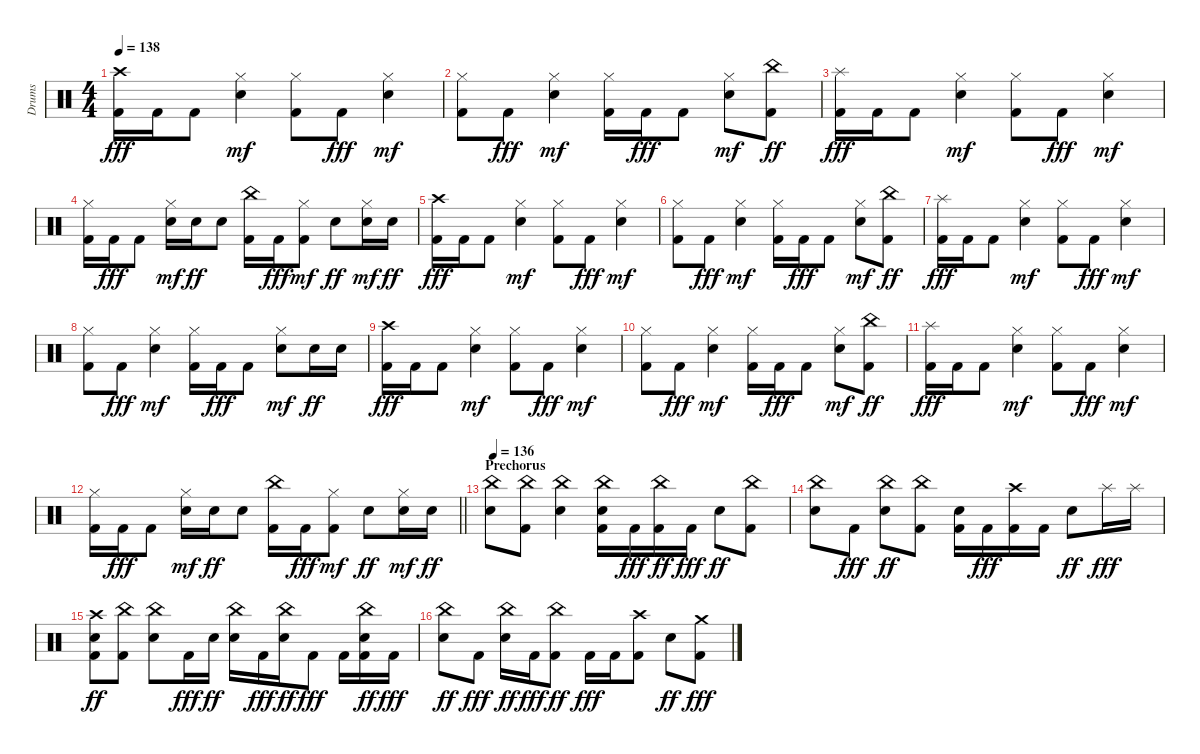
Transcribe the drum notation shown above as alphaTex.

\track ("Drums" "Drums") {instrument percussion}
\staff {score}
\articulation defaults
\ts (4 4)
\tempo 138
\clef neutral
\ks c
("Kick (hit) 2" "Crash high (hit)").16{dy fff} "Kick (hit) 2".16 "Kick (hit) 2".8 ("Snare (hit) 2" "Hi-Hat (closed)").4{dy mf} ("Kick (hit) 2" "Hi-Hat (closed)").8 "Kick (hit) 2".8{dy fff} ("Snare (hit) 2" "Hi-Hat (closed)").4{dy mf} |
("Kick (hit) 2" "Hi-Hat (closed)").8 "Kick (hit) 2".8{dy fff} ("Snare (hit) 2" "Hi-Hat (closed)").4{dy mf} ("Kick (hit) 2" "Hi-Hat (closed)").16 "Kick (hit) 2".16{dy fff} "Kick (hit) 2".8 ("Snare (hit) 2" "Hi-Hat (closed)").8{dy mf} ("Kick (hit) 2" "China (hit)").8{dy ff} |
("Kick (hit) 2" "Splash (hit)").16{dy fff} "Kick (hit) 2".16 "Kick (hit) 2".8 ("Snare (hit) 2" "Hi-Hat (closed)").4{dy mf} ("Kick (hit) 2" "Hi-Hat (closed)").8 "Kick (hit) 2".8{dy fff} ("Snare (hit) 2" "Hi-Hat (closed)").4{dy mf} |
("Kick (hit) 2" "Hi-Hat (closed)").16 "Kick (hit) 2".16{dy fff} "Kick (hit) 2".8 ("Snare (hit) 2" "Hi-Hat (closed)").16{dy mf} "Snare (hit) 2".16{dy ff} "Snare (hit) 2".8 ("Kick (hit) 2" "China (hit)").16 "Kick (hit) 2".16{dy fff} ("Kick (hit) 2" "Hi-Hat (closed)").8{dy mf} "Snare (hit) 2".8{dy ff} ("Snare (hit) 2" "Hi-Hat (closed)").16{dy mf} "Snare (hit) 2".16{dy ff} |
("Kick (hit) 2" "Crash high (hit)").16{dy fff} "Kick (hit) 2".16 "Kick (hit) 2".8 ("Snare (hit) 2" "Hi-Hat (closed)").4{dy mf} ("Kick (hit) 2" "Hi-Hat (closed)").8 "Kick (hit) 2".8{dy fff} ("Snare (hit) 2" "Hi-Hat (closed)").4{dy mf} |
("Kick (hit) 2" "Hi-Hat (closed)").8 "Kick (hit) 2".8{dy fff} ("Snare (hit) 2" "Hi-Hat (closed)").4{dy mf} ("Kick (hit) 2" "Hi-Hat (closed)").16 "Kick (hit) 2".16{dy fff} "Kick (hit) 2".8 ("Snare (hit) 2" "Hi-Hat (closed)").8{dy mf} ("Kick (hit) 2" "China (hit)").8{dy ff} |
("Kick (hit) 2" "Splash (hit)").16{dy fff} "Kick (hit) 2".16 "Kick (hit) 2".8 ("Snare (hit) 2" "Hi-Hat (closed)").4{dy mf} ("Kick (hit) 2" "Hi-Hat (closed)").8 "Kick (hit) 2".8{dy fff} ("Snare (hit) 2" "Hi-Hat (closed)").4{dy mf} |
("Kick (hit) 2" "Hi-Hat (closed)").8 "Kick (hit) 2".8{dy fff} ("Snare (hit) 2" "Hi-Hat (closed)").4{dy mf} ("Kick (hit) 2" "Hi-Hat (closed)").16 "Kick (hit) 2".16{dy fff} "Kick (hit) 2".8 ("Snare (hit) 2" "Hi-Hat (closed)").8{dy mf} "Snare (hit) 2".16{dy ff} "Snare (hit) 2".16 |
("Kick (hit) 2" "Crash high (hit)").16{dy fff} "Kick (hit) 2".16 "Kick (hit) 2".8 ("Snare (hit) 2" "Hi-Hat (closed)").4{dy mf} ("Kick (hit) 2" "Hi-Hat (closed)").8 "Kick (hit) 2".8{dy fff} ("Snare (hit) 2" "Hi-Hat (closed)").4{dy mf} |
("Kick (hit) 2" "Hi-Hat (closed)").8 "Kick (hit) 2".8{dy fff} ("Snare (hit) 2" "Hi-Hat (closed)").4{dy mf} ("Kick (hit) 2" "Hi-Hat (closed)").16 "Kick (hit) 2".16{dy fff} "Kick (hit) 2".8 ("Snare (hit) 2" "Hi-Hat (closed)").8{dy mf} ("Kick (hit) 2" "China (hit)").8{dy ff} |
("Kick (hit) 2" "Splash (hit)").16{dy fff} "Kick (hit) 2".16 "Kick (hit) 2".8 ("Snare (hit) 2" "Hi-Hat (closed)").4{dy mf} ("Kick (hit) 2" "Hi-Hat (closed)").8 "Kick (hit) 2".8{dy fff} ("Snare (hit) 2" "Hi-Hat (closed)").4{dy mf} |
\barLineRight lightlight
("Kick (hit) 2" "Hi-Hat (closed)").16 "Kick (hit) 2".16{dy fff} "Kick (hit) 2".8 ("Snare (hit) 2" "Hi-Hat (closed)").16{dy mf} "Snare (hit) 2".16{dy ff} "Snare (hit) 2".8 ("Kick (hit) 2" "China (hit)").16 "Kick (hit) 2".16{dy fff} ("Kick (hit) 2" "Hi-Hat (closed)").8{dy mf} "Snare (hit) 2".8{dy ff} ("Snare (hit) 2" "Hi-Hat (closed)").16{dy mf} "Snare (hit) 2".16{dy ff} |
\section ("" "Prechorus")
\tempo 136
("Snare (hit) 2" "China (hit)").8 ("Kick (hit) 2" "China (hit)").8 ("Snare (hit) 2" "China (hit)").4 ("Kick (hit) 2" "Snare (hit) 2" "China (hit)").16 "Kick (hit) 2".16{dy fff} ("Kick (hit) 2" "China (hit)").16{dy ff} "Kick (hit) 2".16{dy fff} "Snare (hit) 2".8{dy ff} ("Kick (hit) 2" "China (hit)").8 |
("Snare (hit) 2" "China (hit)").8 "Kick (hit) 2".8{dy fff} ("Snare (hit) 2" "China (hit)").8{dy ff} ("Kick (hit) 2" "China (hit)").8 ("Kick (hit) 2" "Snare (hit) 2").16 "Kick (hit) 2".16{dy fff} ("Kick (hit) 2" "Crash high (hit)").16 "Kick (hit) 2".16 "Snare (hit) 2".8{dy ff} "Splash (hit)".16{dy fff} "Splash (hit)".16 |
("Kick (hit) 2" "Snare (hit) 2" "Crash high (hit)").8{dy ff} ("Kick (hit) 2" "China (hit)").8 ("Snare (hit) 2" "China (hit)").8 "Kick (hit) 2".16{dy fff} "Snare (hit) 2".16{dy ff} ("Snare (hit) 2" "China (hit)").16 "Kick (hit) 2".16{dy fff} ("Snare (hit) 2" "China (hit)").16{dy ff} "Kick (hit) 2".8{dy fff} "Kick (hit) 2".16 ("Kick (hit) 2" "Snare (hit) 2" "China (hit)").16{dy ff} "Kick (hit) 2".16{dy fff} |
("Snare (hit) 2" "China (hit)").8{dy ff} "Kick (hit) 2".8{dy fff} ("Snare (hit) 2" "China (hit)").16{dy ff} "Kick (hit) 2".16{dy fff} ("Kick (hit) 2" "China (hit)").8{dy ff} "Kick (hit) 2".16{dy fff} "Kick (hit) 2".16 ("Kick (hit) 2" "Crash high (hit)").8 "Snare (hit) 2".8{dy ff} ("Kick (hit) 2" "Crash medium (hit)").8{dy fff}
